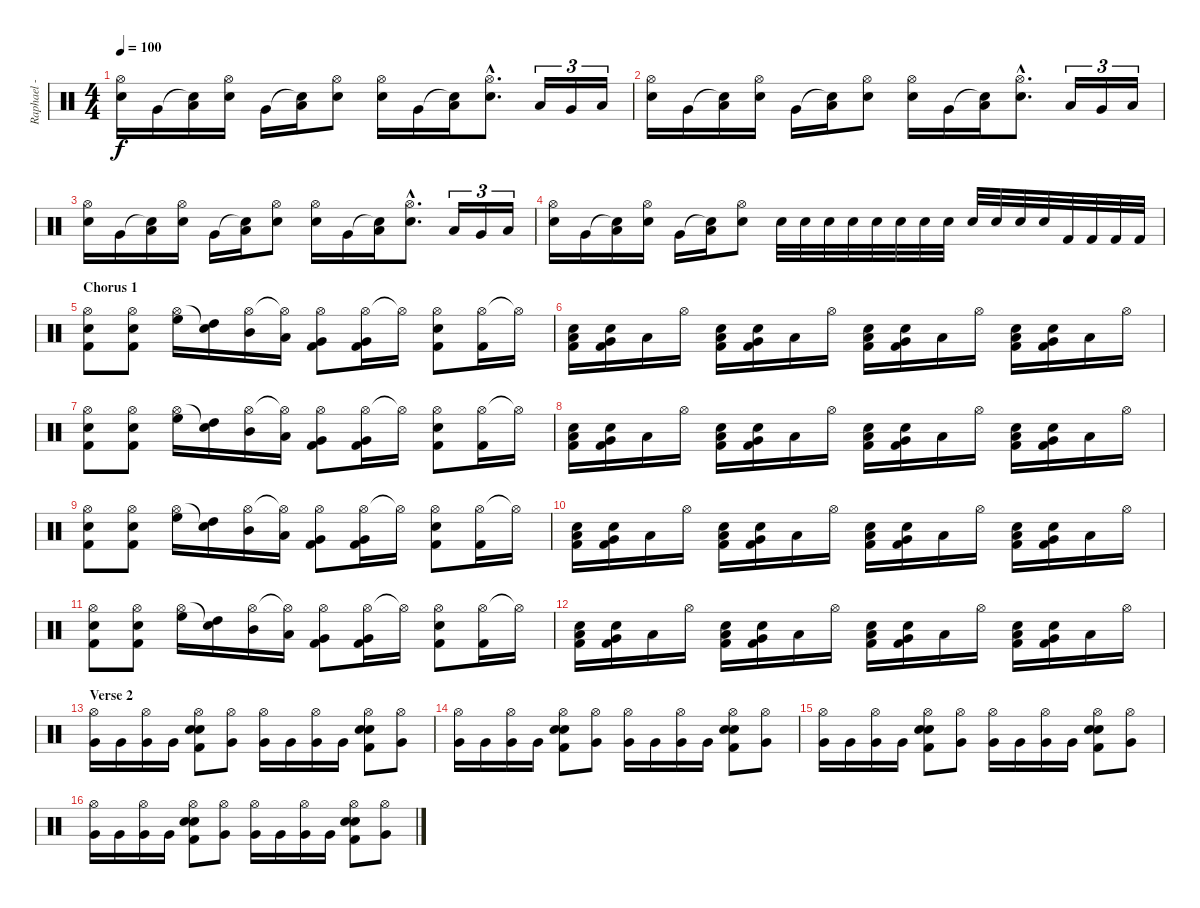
\track ("Raphael - Batterie" "Raphael - ") {instrument percussion}
\staff {score}
\articulation defaults
\ts (4 4)
\tempo 100
\clef neutral
\ks c
("Hi-Hat (open)" "Electric Snare (hit)").16{dy f} "Very Low Tom (hit)".16 ("Snare (hit)"{t} "Low Floor Tom (hit)").16 ("Hi-Hat (open)" "Electric Snare (hit)").16 "Very Low Tom (hit)".16 ("Snare (hit)"{t} "Low Floor Tom (hit)").16 ("Hi-Hat (open)" "Electric Snare (hit)").8 ("Hi-Hat (open)" "Electric Snare (hit)").16 "Very Low Tom (hit)".16 ("Snare (hit)"{t} "Low Floor Tom (hit)").16 ("Hi-Hat (open)"{hac} "Electric Snare (hit)"{hac}).8{d} "Low Tom (hit)".16{tu (3 2)} "Very Low Tom (hit)".16{tu (3 2)} "Low Floor Tom (hit)".16{tu (3 2)} |
("Hi-Hat (open)" "Electric Snare (hit)").16 "Very Low Tom (hit)".16 ("Snare (hit)"{t} "Low Floor Tom (hit)").16 ("Hi-Hat (open)" "Electric Snare (hit)").16 "Very Low Tom (hit)".16 ("Snare (hit)"{t} "Low Floor Tom (hit)").16 ("Hi-Hat (open)" "Electric Snare (hit)").8 ("Hi-Hat (open)" "Electric Snare (hit)").16 "Very Low Tom (hit)".16 ("Snare (hit)"{t} "Low Floor Tom (hit)").16 ("Hi-Hat (open)"{hac} "Electric Snare (hit)"{hac}).8{d} "Low Tom (hit)".16{tu (3 2)} "Very Low Tom (hit)".16{tu (3 2)} "Low Floor Tom (hit)".16{tu (3 2)} |
("Hi-Hat (open)" "Electric Snare (hit)").16 "Very Low Tom (hit)".16 ("Snare (hit)"{t} "Low Floor Tom (hit)").16 ("Hi-Hat (open)" "Electric Snare (hit)").16 "Very Low Tom (hit)".16 ("Snare (hit)"{t} "Low Floor Tom (hit)").16 ("Hi-Hat (open)" "Electric Snare (hit)").8 ("Hi-Hat (open)" "Electric Snare (hit)").16 "Very Low Tom (hit)".16 ("Snare (hit)"{t} "Low Floor Tom (hit)").16 ("Hi-Hat (open)"{hac} "Electric Snare (hit)"{hac}).8{d} "Low Tom (hit)".16{tu (3 2)} "Very Low Tom (hit)".16{tu (3 2)} "Low Floor Tom (hit)".16{tu (3 2)} |
("Hi-Hat (open)" "Electric Snare (hit)").16 "Very Low Tom (hit)".16 ("Snare (hit)"{t} "Low Floor Tom (hit)").16 ("Hi-Hat (open)" "Electric Snare (hit)").16 "Very Low Tom (hit)".16 ("Snare (hit)"{t} "Low Floor Tom (hit)").16 ("Hi-Hat (open)" "Electric Snare (hit)").8 "Electric Snare (hit)".32 "Electric Snare (hit)".32 "Electric Snare (hit)".32 "Electric Snare (hit)".32 "Electric Snare (hit)".32 "Electric Snare (hit)".32 "Snare (hit) 2".32 "Snare (hit) 2".32 "Snare (hit) 2".32 "Snare (hit) 2".32 "Snare (hit) 2".32 "Snare (hit) 2".32 "Kick (hit) 2".32 "Kick (hit) 2".32 "Kick (hit) 2".32 "Kick (hit) 2".32 |
\section ("" "Chorus 1")
("Hi-Hat (open)" "Electric Snare (hit)" "Kick (hit) 2").8 ("Hi-Hat (open)" "Electric Snare (hit)" "Kick (hit) 2").8 ("Hi-Hat (open)" "High Floor Tom (hit)").16 ("Snare (hit)"{t} "High Tom (hit)").16 ("Hi-Hat (open)" "Mid Tom (hit)").16 ("Hi-Hat (open)"{t} "Low Tom (hit)").16 ("Hi-Hat (open)" "Very Low Tom (hit)" "Kick (hit) 2").8 ("Hi-Hat (open)" "Very Low Tom (hit)" "Kick (hit) 2").16 "Hi-Hat (open)"{t}.16 ("Hi-Hat (open)" "Snare (hit) 2" "Kick (hit) 2").8 ("Hi-Hat (open)" "Kick (hit) 2").16 "Hi-Hat (open)"{t}.16 |
("Low Tom (hit)" "Electric Snare (hit)" "Kick (hit) 2").16 ("Very Low Tom (hit)" "Electric Snare (hit)" "Kick (hit) 2").16 "Low Floor Tom (hit)".16 "Hi-Hat (open)".16 ("Low Tom (hit)" "Electric Snare (hit)" "Kick (hit) 2").16 ("Very Low Tom (hit)" "Electric Snare (hit)" "Kick (hit) 2").16 "Low Floor Tom (hit)".16 "Hi-Hat (open)".16 ("Low Tom (hit)" "Electric Snare (hit)" "Kick (hit) 2").16 ("Very Low Tom (hit)" "Electric Snare (hit)" "Kick (hit) 2").16 "Low Floor Tom (hit)".16 "Hi-Hat (open)".16 ("Low Tom (hit)" "Electric Snare (hit)" "Kick (hit) 2").16 ("Very Low Tom (hit)" "Electric Snare (hit)" "Kick (hit) 2").16 "Low Floor Tom (hit)".16 "Hi-Hat (open)".16 |
("Hi-Hat (open)" "Electric Snare (hit)" "Kick (hit) 2").8 ("Hi-Hat (open)" "Electric Snare (hit)" "Kick (hit) 2").8 ("Hi-Hat (open)" "High Floor Tom (hit)").16 ("Snare (hit)"{t} "High Tom (hit)").16 ("Hi-Hat (open)" "Mid Tom (hit)").16 ("Hi-Hat (open)"{t} "Low Tom (hit)").16 ("Hi-Hat (open)" "Very Low Tom (hit)" "Kick (hit) 2").8 ("Hi-Hat (open)" "Very Low Tom (hit)" "Kick (hit) 2").16 "Hi-Hat (open)"{t}.16 ("Hi-Hat (open)" "Snare (hit) 2" "Kick (hit) 2").8 ("Hi-Hat (open)" "Kick (hit) 2").16 "Hi-Hat (open)"{t}.16 |
("Low Tom (hit)" "Electric Snare (hit)" "Kick (hit) 2").16 ("Very Low Tom (hit)" "Electric Snare (hit)" "Kick (hit) 2").16 "Low Floor Tom (hit)".16 "Hi-Hat (open)".16 ("Low Tom (hit)" "Electric Snare (hit)" "Kick (hit) 2").16 ("Very Low Tom (hit)" "Electric Snare (hit)" "Kick (hit) 2").16 "Low Floor Tom (hit)".16 "Hi-Hat (open)".16 ("Low Tom (hit)" "Electric Snare (hit)" "Kick (hit) 2").16 ("Very Low Tom (hit)" "Electric Snare (hit)" "Kick (hit) 2").16 "Low Floor Tom (hit)".16 "Hi-Hat (open)".16 ("Low Tom (hit)" "Electric Snare (hit)" "Kick (hit) 2").16 ("Very Low Tom (hit)" "Electric Snare (hit)" "Kick (hit) 2").16 "Low Floor Tom (hit)".16 "Hi-Hat (open)".16 |
("Hi-Hat (open)" "Electric Snare (hit)" "Kick (hit) 2").8 ("Hi-Hat (open)" "Electric Snare (hit)" "Kick (hit) 2").8 ("Hi-Hat (open)" "High Floor Tom (hit)").16 ("Snare (hit)"{t} "High Tom (hit)").16 ("Hi-Hat (open)" "Mid Tom (hit)").16 ("Hi-Hat (open)"{t} "Low Tom (hit)").16 ("Hi-Hat (open)" "Very Low Tom (hit)" "Kick (hit) 2").8 ("Hi-Hat (open)" "Very Low Tom (hit)" "Kick (hit) 2").16 "Hi-Hat (open)"{t}.16 ("Hi-Hat (open)" "Snare (hit) 2" "Kick (hit) 2").8 ("Hi-Hat (open)" "Kick (hit) 2").16 "Hi-Hat (open)"{t}.16 |
("Low Tom (hit)" "Electric Snare (hit)" "Kick (hit) 2").16 ("Very Low Tom (hit)" "Electric Snare (hit)" "Kick (hit) 2").16 "Low Floor Tom (hit)".16 "Hi-Hat (open)".16 ("Low Tom (hit)" "Electric Snare (hit)" "Kick (hit) 2").16 ("Very Low Tom (hit)" "Electric Snare (hit)" "Kick (hit) 2").16 "Low Floor Tom (hit)".16 "Hi-Hat (open)".16 ("Low Tom (hit)" "Electric Snare (hit)" "Kick (hit) 2").16 ("Very Low Tom (hit)" "Electric Snare (hit)" "Kick (hit) 2").16 "Low Floor Tom (hit)".16 "Hi-Hat (open)".16 ("Low Tom (hit)" "Electric Snare (hit)" "Kick (hit) 2").16 ("Very Low Tom (hit)" "Electric Snare (hit)" "Kick (hit) 2").16 "Low Floor Tom (hit)".16 "Hi-Hat (open)".16 |
("Hi-Hat (open)" "Electric Snare (hit)" "Kick (hit) 2").8 ("Hi-Hat (open)" "Electric Snare (hit)" "Kick (hit) 2").8 ("Hi-Hat (open)" "High Floor Tom (hit)").16 ("Snare (hit)"{t} "High Tom (hit)").16 ("Hi-Hat (open)" "Mid Tom (hit)").16 ("Hi-Hat (open)"{t} "Low Tom (hit)").16 ("Hi-Hat (open)" "Very Low Tom (hit)" "Kick (hit) 2").8 ("Hi-Hat (open)" "Very Low Tom (hit)" "Kick (hit) 2").16 "Hi-Hat (open)"{t}.16 ("Hi-Hat (open)" "Snare (hit) 2" "Kick (hit) 2").8 ("Hi-Hat (open)" "Kick (hit) 2").16 "Hi-Hat (open)"{t}.16 |
("Low Tom (hit)" "Electric Snare (hit)" "Kick (hit) 2").16 ("Very Low Tom (hit)" "Electric Snare (hit)" "Kick (hit) 2").16 "Low Floor Tom (hit)".16 "Hi-Hat (open)".16 ("Low Tom (hit)" "Electric Snare (hit)" "Kick (hit) 2").16 ("Very Low Tom (hit)" "Electric Snare (hit)" "Kick (hit) 2").16 "Low Floor Tom (hit)".16 "Hi-Hat (open)".16 ("Low Tom (hit)" "Electric Snare (hit)" "Kick (hit) 2").16 ("Very Low Tom (hit)" "Electric Snare (hit)" "Kick (hit) 2").16 "Low Floor Tom (hit)".16 "Hi-Hat (open)".16 ("Low Tom (hit)" "Electric Snare (hit)" "Kick (hit) 2").16 ("Very Low Tom (hit)" "Electric Snare (hit)" "Kick (hit) 2").16 "Low Floor Tom (hit)".16 "Hi-Hat (open)".16 |
\section ("" "Verse 2")
("Hi-Hat (open)" "Very Low Tom (hit)").16 "Very Low Tom (hit)".16 ("Hi-Hat (open)" "Very Low Tom (hit)").16 "Very Low Tom (hit)".16 ("Hi-Hat (open)" "Hand Clap (hit)" "Snare (hit) 2" "Kick (hit) 2").8 ("Hi-Hat (open)" "Very Low Tom (hit)").8 ("Hi-Hat (open)" "Very Low Tom (hit)").16 "Very Low Tom (hit)".16 ("Hi-Hat (open)" "Very Low Tom (hit)").16 "Very Low Tom (hit)".16 ("Hi-Hat (open)" "Hand Clap (hit)" "Snare (hit) 2" "Kick (hit) 2").8 ("Hi-Hat (open)" "Very Low Tom (hit)").8 |
("Hi-Hat (open)" "Very Low Tom (hit)").16 "Very Low Tom (hit)".16 ("Hi-Hat (open)" "Very Low Tom (hit)").16 "Very Low Tom (hit)".16 ("Hi-Hat (open)" "Hand Clap (hit)" "Snare (hit) 2" "Kick (hit) 2").8 ("Hi-Hat (open)" "Very Low Tom (hit)").8 ("Hi-Hat (open)" "Very Low Tom (hit)").16 "Very Low Tom (hit)".16 ("Hi-Hat (open)" "Very Low Tom (hit)").16 "Very Low Tom (hit)".16 ("Hi-Hat (open)" "Hand Clap (hit)" "Snare (hit) 2" "Kick (hit) 2").8 ("Hi-Hat (open)" "Very Low Tom (hit)").8 |
("Hi-Hat (open)" "Very Low Tom (hit)").16 "Very Low Tom (hit)".16 ("Hi-Hat (open)" "Very Low Tom (hit)").16 "Very Low Tom (hit)".16 ("Hi-Hat (open)" "Hand Clap (hit)" "Snare (hit) 2" "Kick (hit) 2").8 ("Hi-Hat (open)" "Very Low Tom (hit)").8 ("Hi-Hat (open)" "Very Low Tom (hit)").16 "Very Low Tom (hit)".16 ("Hi-Hat (open)" "Very Low Tom (hit)").16 "Very Low Tom (hit)".16 ("Hi-Hat (open)" "Hand Clap (hit)" "Snare (hit) 2" "Kick (hit) 2").8 ("Hi-Hat (open)" "Very Low Tom (hit)").8 |
("Hi-Hat (open)" "Very Low Tom (hit)").16 "Very Low Tom (hit)".16 ("Hi-Hat (open)" "Very Low Tom (hit)").16 "Very Low Tom (hit)".16 ("Hi-Hat (open)" "Hand Clap (hit)" "Snare (hit) 2" "Kick (hit) 2").8 ("Hi-Hat (open)" "Very Low Tom (hit)").8 ("Hi-Hat (open)" "Very Low Tom (hit)").16 "Very Low Tom (hit)".16 ("Hi-Hat (open)" "Very Low Tom (hit)").16 "Very Low Tom (hit)".16 ("Hi-Hat (open)" "Hand Clap (hit)" "Snare (hit) 2" "Kick (hit) 2").8 ("Hi-Hat (open)" "Very Low Tom (hit)").8
